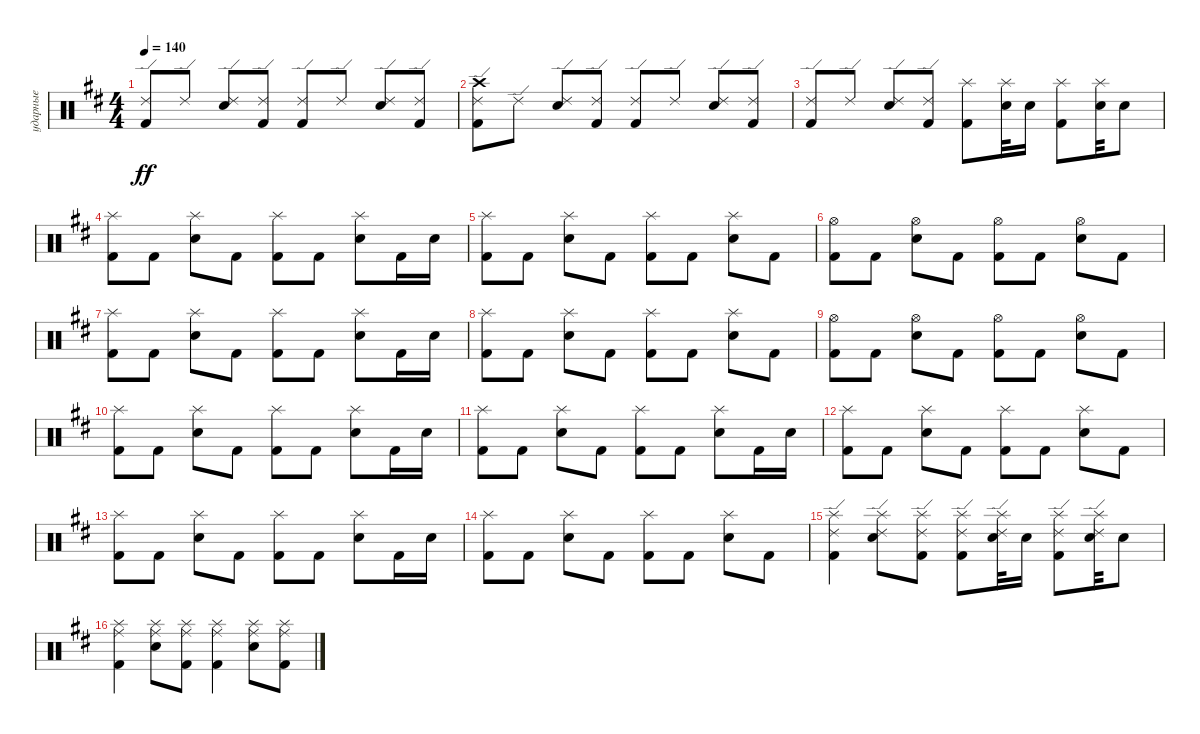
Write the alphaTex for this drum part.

\track ("ударные" "ударные") {instrument percussion}
\staff {score}
\articulation defaults
\ts (4 4)
\tempo 140
\clef neutral
\ks bminor
("Kick (hit) 2" "Ride (edge) 2").8{dy ff} "Ride (edge) 2".8 ("Snare (hit) 2" "Ride (edge) 2").8 ("Kick (hit) 2" "Ride (edge) 2").8 ("Kick (hit) 2" "Ride (edge) 2").8 "Ride (edge) 2".8 ("Snare (hit) 2" "Ride (edge) 2").8 ("Kick (hit) 2" "Ride (edge) 2").8 |
("Kick (hit) 2" "Ride (edge) 2" "Crash high (hit)").8 "Ride (edge) 2".8 ("Snare (hit) 2" "Ride (edge) 2").8 ("Kick (hit) 2" "Ride (edge) 2").8 ("Kick (hit) 2" "Ride (edge) 2").8 "Ride (edge) 2".8 ("Snare (hit) 2" "Ride (edge) 2").8 ("Kick (hit) 2" "Ride (edge) 2").8 |
("Kick (hit) 2" "Ride (edge) 2").8 "Ride (edge) 2".8 ("Snare (hit) 2" "Ride (edge) 2").8 ("Kick (hit) 2" "Ride (edge) 2").8 ("Kick (hit) 2" "Splash (hit)").8 ("Snare (hit) 2" "Splash (hit)").32 "Snare (hit) 2".16{beam split} ("Kick (hit) 2" "Splash (hit)").8{beam merge} ("Snare (hit) 2" "Splash (hit)").32 "Snare (hit) 2".8 |
("Kick (hit) 2" "Splash (hit)").8 "Kick (hit) 2".8 ("Snare (hit) 2" "Splash (hit)").8 "Kick (hit) 2".8 ("Kick (hit) 2" "Splash (hit)").8 "Kick (hit) 2".8 ("Snare (hit) 2" "Splash (hit)").8 "Kick (hit) 2".16 "Snare (hit) 2".16 |
("Kick (hit) 2" "Splash (hit)").8 "Kick (hit) 2".8 ("Snare (hit) 2" "Splash (hit)").8 "Kick (hit) 2".8 ("Kick (hit) 2" "Splash (hit)").8 "Kick (hit) 2".8 ("Snare (hit) 2" "Splash (hit)").8 "Kick (hit) 2".8 |
("Kick (hit) 2" "Hi-Hat (open)").8 "Kick (hit) 2".8 ("Snare (hit) 2" "Hi-Hat (open)").8 "Kick (hit) 2".8 ("Kick (hit) 2" "Hi-Hat (open)").8 "Kick (hit) 2".8 ("Snare (hit) 2" "Hi-Hat (open)").8 "Kick (hit) 2".8 |
("Kick (hit) 2" "Splash (hit)").8 "Kick (hit) 2".8 ("Snare (hit) 2" "Splash (hit)").8 "Kick (hit) 2".8 ("Kick (hit) 2" "Splash (hit)").8 "Kick (hit) 2".8 ("Snare (hit) 2" "Splash (hit)").8 "Kick (hit) 2".16 "Snare (hit) 2".16 |
("Kick (hit) 2" "Splash (hit)").8 "Kick (hit) 2".8 ("Snare (hit) 2" "Splash (hit)").8 "Kick (hit) 2".8 ("Kick (hit) 2" "Splash (hit)").8 "Kick (hit) 2".8 ("Snare (hit) 2" "Splash (hit)").8 "Kick (hit) 2".8 |
("Kick (hit) 2" "Hi-Hat (open)").8 "Kick (hit) 2".8 ("Snare (hit) 2" "Hi-Hat (open)").8 "Kick (hit) 2".8 ("Kick (hit) 2" "Hi-Hat (open)").8 "Kick (hit) 2".8 ("Snare (hit) 2" "Hi-Hat (open)").8 "Kick (hit) 2".8 |
("Kick (hit) 2" "Splash (hit)").8 "Kick (hit) 2".8 ("Snare (hit) 2" "Splash (hit)").8 "Kick (hit) 2".8 ("Kick (hit) 2" "Splash (hit)").8 "Kick (hit) 2".8 ("Snare (hit) 2" "Splash (hit)").8 "Kick (hit) 2".16 "Snare (hit) 2".16 |
("Kick (hit) 2" "Splash (hit)").8 "Kick (hit) 2".8 ("Snare (hit) 2" "Splash (hit)").8 "Kick (hit) 2".8 ("Kick (hit) 2" "Splash (hit)").8 "Kick (hit) 2".8 ("Snare (hit) 2" "Splash (hit)").8 "Kick (hit) 2".16 "Snare (hit) 2".16 |
("Kick (hit) 2" "Splash (hit)").8 "Kick (hit) 2".8 ("Snare (hit) 2" "Splash (hit)").8 "Kick (hit) 2".8 ("Kick (hit) 2" "Splash (hit)").8 "Kick (hit) 2".8 ("Snare (hit) 2" "Splash (hit)").8 "Kick (hit) 2".8 |
("Kick (hit) 2" "Splash (hit)").8 "Kick (hit) 2".8 ("Snare (hit) 2" "Splash (hit)").8 "Kick (hit) 2".8 ("Kick (hit) 2" "Splash (hit)").8 "Kick (hit) 2".8 ("Snare (hit) 2" "Splash (hit)").8 "Kick (hit) 2".16 "Snare (hit) 2".16 |
("Kick (hit) 2" "Splash (hit)").8 "Kick (hit) 2".8 ("Snare (hit) 2" "Splash (hit)").8 "Kick (hit) 2".8 ("Kick (hit) 2" "Splash (hit)").8 "Kick (hit) 2".8 ("Snare (hit) 2" "Splash (hit)").8 "Kick (hit) 2".8 |
("Kick (hit) 2" "Splash (hit)" "Ride (edge) 2").4 ("Snare (hit) 2" "Splash (hit)" "Ride (edge) 2").8 ("Kick (hit) 2" "Splash (hit)" "Ride (edge) 2").8 ("Kick (hit) 2" "Splash (hit)" "Ride (edge) 2").8 ("Snare (hit) 2" "Splash (hit)" "Ride (edge) 2").32 "Snare (hit) 2".16{beam split} ("Kick (hit) 2" "Splash (hit)" "Ride (edge) 2").8{beam merge} ("Snare (hit) 2" "Splash (hit)" "Ride (edge) 2").32 "Snare (hit) 2".8 |
("Kick (hit) 2" "Splash (hit)" "Ride (middle)").4 ("Snare (hit) 2" "Splash (hit)" "Ride (middle)").8 ("Kick (hit) 2" "Splash (hit)" "Ride (middle)").8 ("Kick (hit) 2" "Splash (hit)" "Ride (middle)").4 ("Snare (hit) 2" "Splash (hit)" "Ride (middle)").8 ("Kick (hit) 2" "Splash (hit)" "Ride (middle)").8
